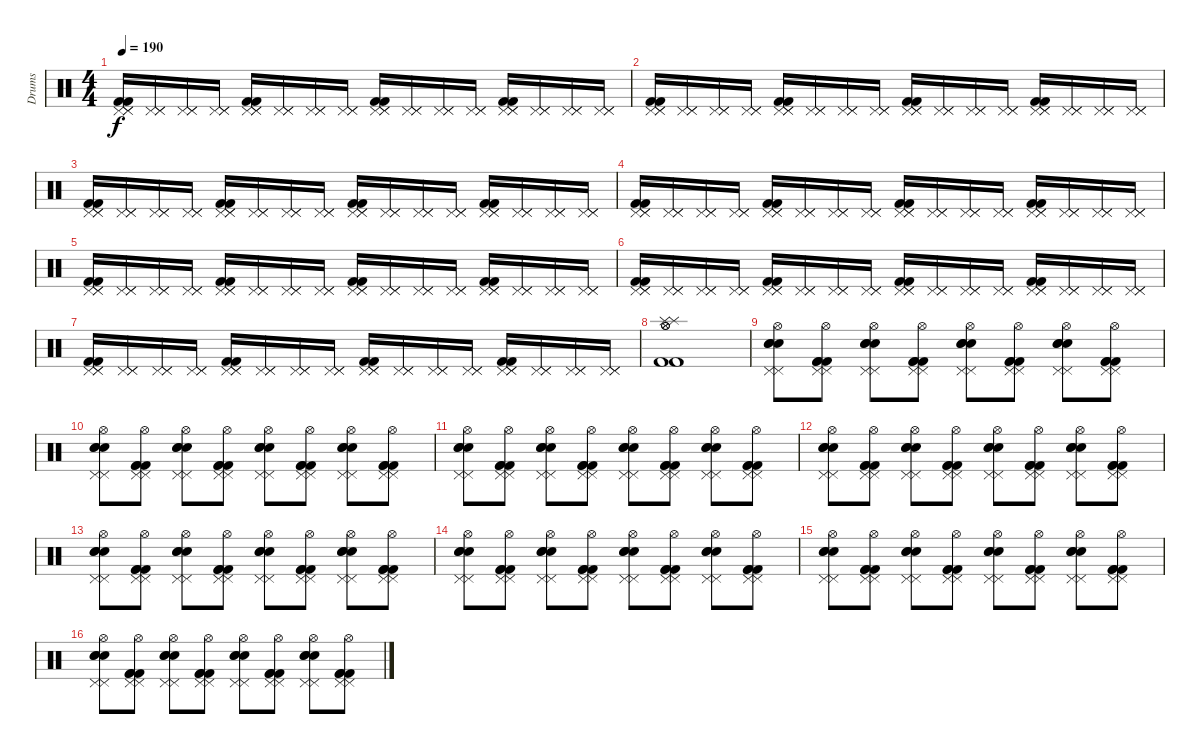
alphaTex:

\track ("Drums" "Drums") {instrument percussion}
\staff {score}
\articulation defaults
\ts (4 4)
\tempo 190
\clef neutral
\ks c
("Pedal Hi-Hat (hit)" "Pedal Hi-Hat (hit)" "Pedal Hi-Hat (hit)" "Kick (hit) 2" "Kick (hit) 2").16{dy f} ("Pedal Hi-Hat (hit)" "Pedal Hi-Hat (hit)" "Pedal Hi-Hat (hit)").16 ("Pedal Hi-Hat (hit)" "Pedal Hi-Hat (hit)" "Pedal Hi-Hat (hit)").16 ("Pedal Hi-Hat (hit)" "Pedal Hi-Hat (hit)" "Pedal Hi-Hat (hit)").16 ("Pedal Hi-Hat (hit)" "Pedal Hi-Hat (hit)" "Pedal Hi-Hat (hit)" "Kick (hit) 2" "Kick (hit) 2").16 ("Pedal Hi-Hat (hit)" "Pedal Hi-Hat (hit)" "Pedal Hi-Hat (hit)").16 ("Pedal Hi-Hat (hit)" "Pedal Hi-Hat (hit)" "Pedal Hi-Hat (hit)").16 ("Pedal Hi-Hat (hit)" "Pedal Hi-Hat (hit)" "Pedal Hi-Hat (hit)").16 ("Pedal Hi-Hat (hit)" "Pedal Hi-Hat (hit)" "Pedal Hi-Hat (hit)" "Kick (hit) 2" "Kick (hit) 2").16 ("Pedal Hi-Hat (hit)" "Pedal Hi-Hat (hit)" "Pedal Hi-Hat (hit)").16 ("Pedal Hi-Hat (hit)" "Pedal Hi-Hat (hit)" "Pedal Hi-Hat (hit)").16 ("Pedal Hi-Hat (hit)" "Pedal Hi-Hat (hit)" "Pedal Hi-Hat (hit)").16 ("Pedal Hi-Hat (hit)" "Pedal Hi-Hat (hit)" "Pedal Hi-Hat (hit)" "Kick (hit) 2" "Kick (hit) 2").16 ("Pedal Hi-Hat (hit)" "Pedal Hi-Hat (hit)" "Pedal Hi-Hat (hit)").16 ("Pedal Hi-Hat (hit)" "Pedal Hi-Hat (hit)" "Pedal Hi-Hat (hit)").16 ("Pedal Hi-Hat (hit)" "Pedal Hi-Hat (hit)" "Pedal Hi-Hat (hit)").16 |
("Pedal Hi-Hat (hit)" "Pedal Hi-Hat (hit)" "Pedal Hi-Hat (hit)" "Kick (hit) 2" "Kick (hit) 2").16 ("Pedal Hi-Hat (hit)" "Pedal Hi-Hat (hit)" "Pedal Hi-Hat (hit)").16 ("Pedal Hi-Hat (hit)" "Pedal Hi-Hat (hit)" "Pedal Hi-Hat (hit)").16 ("Pedal Hi-Hat (hit)" "Pedal Hi-Hat (hit)" "Pedal Hi-Hat (hit)").16 ("Pedal Hi-Hat (hit)" "Pedal Hi-Hat (hit)" "Pedal Hi-Hat (hit)" "Kick (hit) 2" "Kick (hit) 2").16 ("Pedal Hi-Hat (hit)" "Pedal Hi-Hat (hit)" "Pedal Hi-Hat (hit)").16 ("Pedal Hi-Hat (hit)" "Pedal Hi-Hat (hit)" "Pedal Hi-Hat (hit)").16 ("Pedal Hi-Hat (hit)" "Pedal Hi-Hat (hit)" "Pedal Hi-Hat (hit)").16 ("Pedal Hi-Hat (hit)" "Pedal Hi-Hat (hit)" "Pedal Hi-Hat (hit)" "Kick (hit) 2" "Kick (hit) 2").16 ("Pedal Hi-Hat (hit)" "Pedal Hi-Hat (hit)" "Pedal Hi-Hat (hit)").16 ("Pedal Hi-Hat (hit)" "Pedal Hi-Hat (hit)" "Pedal Hi-Hat (hit)").16 ("Pedal Hi-Hat (hit)" "Pedal Hi-Hat (hit)" "Pedal Hi-Hat (hit)").16 ("Pedal Hi-Hat (hit)" "Pedal Hi-Hat (hit)" "Pedal Hi-Hat (hit)" "Kick (hit) 2" "Kick (hit) 2").16 ("Pedal Hi-Hat (hit)" "Pedal Hi-Hat (hit)" "Pedal Hi-Hat (hit)").16 ("Pedal Hi-Hat (hit)" "Pedal Hi-Hat (hit)" "Pedal Hi-Hat (hit)").16 ("Pedal Hi-Hat (hit)" "Pedal Hi-Hat (hit)" "Pedal Hi-Hat (hit)").16 |
("Pedal Hi-Hat (hit)" "Pedal Hi-Hat (hit)" "Pedal Hi-Hat (hit)" "Kick (hit) 2" "Kick (hit) 2").16 ("Pedal Hi-Hat (hit)" "Pedal Hi-Hat (hit)" "Pedal Hi-Hat (hit)").16 ("Pedal Hi-Hat (hit)" "Pedal Hi-Hat (hit)" "Pedal Hi-Hat (hit)").16 ("Pedal Hi-Hat (hit)" "Pedal Hi-Hat (hit)" "Pedal Hi-Hat (hit)").16 ("Pedal Hi-Hat (hit)" "Pedal Hi-Hat (hit)" "Pedal Hi-Hat (hit)" "Kick (hit) 2" "Kick (hit) 2").16 ("Pedal Hi-Hat (hit)" "Pedal Hi-Hat (hit)" "Pedal Hi-Hat (hit)").16 ("Pedal Hi-Hat (hit)" "Pedal Hi-Hat (hit)" "Pedal Hi-Hat (hit)").16 ("Pedal Hi-Hat (hit)" "Pedal Hi-Hat (hit)" "Pedal Hi-Hat (hit)").16 ("Pedal Hi-Hat (hit)" "Pedal Hi-Hat (hit)" "Pedal Hi-Hat (hit)" "Kick (hit) 2" "Kick (hit) 2").16 ("Pedal Hi-Hat (hit)" "Pedal Hi-Hat (hit)" "Pedal Hi-Hat (hit)").16 ("Pedal Hi-Hat (hit)" "Pedal Hi-Hat (hit)" "Pedal Hi-Hat (hit)").16 ("Pedal Hi-Hat (hit)" "Pedal Hi-Hat (hit)" "Pedal Hi-Hat (hit)").16 ("Pedal Hi-Hat (hit)" "Pedal Hi-Hat (hit)" "Pedal Hi-Hat (hit)" "Kick (hit) 2" "Kick (hit) 2").16 ("Pedal Hi-Hat (hit)" "Pedal Hi-Hat (hit)" "Pedal Hi-Hat (hit)").16 ("Pedal Hi-Hat (hit)" "Pedal Hi-Hat (hit)" "Pedal Hi-Hat (hit)").16 ("Pedal Hi-Hat (hit)" "Pedal Hi-Hat (hit)" "Pedal Hi-Hat (hit)").16 |
("Pedal Hi-Hat (hit)" "Pedal Hi-Hat (hit)" "Pedal Hi-Hat (hit)" "Kick (hit) 2" "Kick (hit) 2").16 ("Pedal Hi-Hat (hit)" "Pedal Hi-Hat (hit)" "Pedal Hi-Hat (hit)").16 ("Pedal Hi-Hat (hit)" "Pedal Hi-Hat (hit)" "Pedal Hi-Hat (hit)").16 ("Pedal Hi-Hat (hit)" "Pedal Hi-Hat (hit)" "Pedal Hi-Hat (hit)").16 ("Pedal Hi-Hat (hit)" "Pedal Hi-Hat (hit)" "Pedal Hi-Hat (hit)" "Kick (hit) 2" "Kick (hit) 2").16 ("Pedal Hi-Hat (hit)" "Pedal Hi-Hat (hit)" "Pedal Hi-Hat (hit)").16 ("Pedal Hi-Hat (hit)" "Pedal Hi-Hat (hit)" "Pedal Hi-Hat (hit)").16 ("Pedal Hi-Hat (hit)" "Pedal Hi-Hat (hit)" "Pedal Hi-Hat (hit)").16 ("Pedal Hi-Hat (hit)" "Pedal Hi-Hat (hit)" "Pedal Hi-Hat (hit)" "Kick (hit) 2" "Kick (hit) 2").16 ("Pedal Hi-Hat (hit)" "Pedal Hi-Hat (hit)" "Pedal Hi-Hat (hit)").16 ("Pedal Hi-Hat (hit)" "Pedal Hi-Hat (hit)" "Pedal Hi-Hat (hit)").16 ("Pedal Hi-Hat (hit)" "Pedal Hi-Hat (hit)" "Pedal Hi-Hat (hit)").16 ("Pedal Hi-Hat (hit)" "Pedal Hi-Hat (hit)" "Pedal Hi-Hat (hit)" "Kick (hit) 2" "Kick (hit) 2").16 ("Pedal Hi-Hat (hit)" "Pedal Hi-Hat (hit)" "Pedal Hi-Hat (hit)").16 ("Pedal Hi-Hat (hit)" "Pedal Hi-Hat (hit)" "Pedal Hi-Hat (hit)").16 ("Pedal Hi-Hat (hit)" "Pedal Hi-Hat (hit)" "Pedal Hi-Hat (hit)").16 |
("Pedal Hi-Hat (hit)" "Pedal Hi-Hat (hit)" "Pedal Hi-Hat (hit)" "Kick (hit) 2" "Kick (hit) 2").16 ("Pedal Hi-Hat (hit)" "Pedal Hi-Hat (hit)" "Pedal Hi-Hat (hit)").16 ("Pedal Hi-Hat (hit)" "Pedal Hi-Hat (hit)" "Pedal Hi-Hat (hit)").16 ("Pedal Hi-Hat (hit)" "Pedal Hi-Hat (hit)" "Pedal Hi-Hat (hit)").16 ("Pedal Hi-Hat (hit)" "Pedal Hi-Hat (hit)" "Pedal Hi-Hat (hit)" "Kick (hit) 2" "Kick (hit) 2").16 ("Pedal Hi-Hat (hit)" "Pedal Hi-Hat (hit)" "Pedal Hi-Hat (hit)").16 ("Pedal Hi-Hat (hit)" "Pedal Hi-Hat (hit)" "Pedal Hi-Hat (hit)").16 ("Pedal Hi-Hat (hit)" "Pedal Hi-Hat (hit)" "Pedal Hi-Hat (hit)").16 ("Pedal Hi-Hat (hit)" "Pedal Hi-Hat (hit)" "Pedal Hi-Hat (hit)" "Kick (hit) 2" "Kick (hit) 2").16 ("Pedal Hi-Hat (hit)" "Pedal Hi-Hat (hit)" "Pedal Hi-Hat (hit)").16 ("Pedal Hi-Hat (hit)" "Pedal Hi-Hat (hit)" "Pedal Hi-Hat (hit)").16 ("Pedal Hi-Hat (hit)" "Pedal Hi-Hat (hit)" "Pedal Hi-Hat (hit)").16 ("Pedal Hi-Hat (hit)" "Pedal Hi-Hat (hit)" "Pedal Hi-Hat (hit)" "Kick (hit) 2" "Kick (hit) 2").16 ("Pedal Hi-Hat (hit)" "Pedal Hi-Hat (hit)" "Pedal Hi-Hat (hit)").16 ("Pedal Hi-Hat (hit)" "Pedal Hi-Hat (hit)" "Pedal Hi-Hat (hit)").16 ("Pedal Hi-Hat (hit)" "Pedal Hi-Hat (hit)" "Pedal Hi-Hat (hit)").16 |
("Pedal Hi-Hat (hit)" "Pedal Hi-Hat (hit)" "Pedal Hi-Hat (hit)" "Kick (hit) 2" "Kick (hit) 2").16 ("Pedal Hi-Hat (hit)" "Pedal Hi-Hat (hit)" "Pedal Hi-Hat (hit)").16 ("Pedal Hi-Hat (hit)" "Pedal Hi-Hat (hit)" "Pedal Hi-Hat (hit)").16 ("Pedal Hi-Hat (hit)" "Pedal Hi-Hat (hit)" "Pedal Hi-Hat (hit)").16 ("Pedal Hi-Hat (hit)" "Pedal Hi-Hat (hit)" "Pedal Hi-Hat (hit)" "Kick (hit) 2" "Kick (hit) 2").16 ("Pedal Hi-Hat (hit)" "Pedal Hi-Hat (hit)" "Pedal Hi-Hat (hit)").16 ("Pedal Hi-Hat (hit)" "Pedal Hi-Hat (hit)" "Pedal Hi-Hat (hit)").16 ("Pedal Hi-Hat (hit)" "Pedal Hi-Hat (hit)" "Pedal Hi-Hat (hit)").16 ("Pedal Hi-Hat (hit)" "Pedal Hi-Hat (hit)" "Pedal Hi-Hat (hit)" "Kick (hit) 2" "Kick (hit) 2").16 ("Pedal Hi-Hat (hit)" "Pedal Hi-Hat (hit)" "Pedal Hi-Hat (hit)").16 ("Pedal Hi-Hat (hit)" "Pedal Hi-Hat (hit)" "Pedal Hi-Hat (hit)").16 ("Pedal Hi-Hat (hit)" "Pedal Hi-Hat (hit)" "Pedal Hi-Hat (hit)").16 ("Pedal Hi-Hat (hit)" "Pedal Hi-Hat (hit)" "Pedal Hi-Hat (hit)" "Kick (hit) 2" "Kick (hit) 2").16 ("Pedal Hi-Hat (hit)" "Pedal Hi-Hat (hit)" "Pedal Hi-Hat (hit)").16 ("Pedal Hi-Hat (hit)" "Pedal Hi-Hat (hit)" "Pedal Hi-Hat (hit)").16 ("Pedal Hi-Hat (hit)" "Pedal Hi-Hat (hit)" "Pedal Hi-Hat (hit)").16 |
("Pedal Hi-Hat (hit)" "Pedal Hi-Hat (hit)" "Pedal Hi-Hat (hit)" "Kick (hit) 2" "Kick (hit) 2").16 ("Pedal Hi-Hat (hit)" "Pedal Hi-Hat (hit)" "Pedal Hi-Hat (hit)").16 ("Pedal Hi-Hat (hit)" "Pedal Hi-Hat (hit)" "Pedal Hi-Hat (hit)").16 ("Pedal Hi-Hat (hit)" "Pedal Hi-Hat (hit)" "Pedal Hi-Hat (hit)").16 ("Pedal Hi-Hat (hit)" "Pedal Hi-Hat (hit)" "Pedal Hi-Hat (hit)" "Kick (hit) 2" "Kick (hit) 2").16 ("Pedal Hi-Hat (hit)" "Pedal Hi-Hat (hit)" "Pedal Hi-Hat (hit)").16 ("Pedal Hi-Hat (hit)" "Pedal Hi-Hat (hit)" "Pedal Hi-Hat (hit)").16 ("Pedal Hi-Hat (hit)" "Pedal Hi-Hat (hit)" "Pedal Hi-Hat (hit)").16 ("Pedal Hi-Hat (hit)" "Pedal Hi-Hat (hit)" "Pedal Hi-Hat (hit)" "Kick (hit) 2" "Kick (hit) 2").16 ("Pedal Hi-Hat (hit)" "Pedal Hi-Hat (hit)" "Pedal Hi-Hat (hit)").16 ("Pedal Hi-Hat (hit)" "Pedal Hi-Hat (hit)" "Pedal Hi-Hat (hit)").16 ("Pedal Hi-Hat (hit)" "Pedal Hi-Hat (hit)" "Pedal Hi-Hat (hit)").16 ("Pedal Hi-Hat (hit)" "Pedal Hi-Hat (hit)" "Pedal Hi-Hat (hit)" "Kick (hit) 2" "Kick (hit) 2").16 ("Pedal Hi-Hat (hit)" "Pedal Hi-Hat (hit)" "Pedal Hi-Hat (hit)").16 ("Pedal Hi-Hat (hit)" "Pedal Hi-Hat (hit)" "Pedal Hi-Hat (hit)").16 ("Pedal Hi-Hat (hit)" "Pedal Hi-Hat (hit)" "Pedal Hi-Hat (hit)").16 |
("Hi-Hat (open)" "Hi-Hat (open)" "Kick (hit) 2" "Kick (hit) 2" "Splash (hit)" "Splash (hit)").1 |
("Snare (hit) 2" "Snare (hit) 2" "Snare (hit) 2" "Pedal Hi-Hat (hit)" "Hi-Hat (open)" "Pedal Hi-Hat (hit)").8 ("Kick (hit) 2" "Kick (hit) 2" "Kick (hit) 2" "Pedal Hi-Hat (hit)" "Hi-Hat (open)" "Pedal Hi-Hat (hit)").8 ("Snare (hit) 2" "Snare (hit) 2" "Snare (hit) 2" "Pedal Hi-Hat (hit)" "Hi-Hat (open)" "Pedal Hi-Hat (hit)").8 ("Kick (hit) 2" "Kick (hit) 2" "Kick (hit) 2" "Pedal Hi-Hat (hit)" "Hi-Hat (open)" "Pedal Hi-Hat (hit)").8 ("Snare (hit) 2" "Snare (hit) 2" "Snare (hit) 2" "Pedal Hi-Hat (hit)" "Hi-Hat (open)" "Pedal Hi-Hat (hit)").8 ("Kick (hit) 2" "Kick (hit) 2" "Kick (hit) 2" "Pedal Hi-Hat (hit)" "Hi-Hat (open)" "Pedal Hi-Hat (hit)").8 ("Snare (hit) 2" "Snare (hit) 2" "Snare (hit) 2" "Pedal Hi-Hat (hit)" "Hi-Hat (open)" "Pedal Hi-Hat (hit)").8 ("Kick (hit) 2" "Kick (hit) 2" "Kick (hit) 2" "Pedal Hi-Hat (hit)" "Hi-Hat (open)" "Pedal Hi-Hat (hit)").8 |
("Snare (hit) 2" "Snare (hit) 2" "Snare (hit) 2" "Pedal Hi-Hat (hit)" "Hi-Hat (open)" "Pedal Hi-Hat (hit)").8 ("Kick (hit) 2" "Kick (hit) 2" "Kick (hit) 2" "Pedal Hi-Hat (hit)" "Hi-Hat (open)" "Pedal Hi-Hat (hit)").8 ("Snare (hit) 2" "Snare (hit) 2" "Snare (hit) 2" "Pedal Hi-Hat (hit)" "Hi-Hat (open)" "Pedal Hi-Hat (hit)").8 ("Kick (hit) 2" "Kick (hit) 2" "Kick (hit) 2" "Pedal Hi-Hat (hit)" "Hi-Hat (open)" "Pedal Hi-Hat (hit)").8 ("Snare (hit) 2" "Snare (hit) 2" "Snare (hit) 2" "Pedal Hi-Hat (hit)" "Hi-Hat (open)" "Pedal Hi-Hat (hit)").8 ("Kick (hit) 2" "Kick (hit) 2" "Kick (hit) 2" "Pedal Hi-Hat (hit)" "Hi-Hat (open)" "Pedal Hi-Hat (hit)").8 ("Snare (hit) 2" "Snare (hit) 2" "Snare (hit) 2" "Pedal Hi-Hat (hit)" "Hi-Hat (open)" "Pedal Hi-Hat (hit)").8 ("Kick (hit) 2" "Kick (hit) 2" "Kick (hit) 2" "Pedal Hi-Hat (hit)" "Hi-Hat (open)" "Pedal Hi-Hat (hit)").8 |
("Snare (hit) 2" "Snare (hit) 2" "Snare (hit) 2" "Pedal Hi-Hat (hit)" "Hi-Hat (open)" "Pedal Hi-Hat (hit)").8 ("Kick (hit) 2" "Kick (hit) 2" "Kick (hit) 2" "Pedal Hi-Hat (hit)" "Hi-Hat (open)" "Pedal Hi-Hat (hit)").8 ("Snare (hit) 2" "Snare (hit) 2" "Snare (hit) 2" "Pedal Hi-Hat (hit)" "Hi-Hat (open)" "Pedal Hi-Hat (hit)").8 ("Kick (hit) 2" "Kick (hit) 2" "Kick (hit) 2" "Pedal Hi-Hat (hit)" "Hi-Hat (open)" "Pedal Hi-Hat (hit)").8 ("Snare (hit) 2" "Snare (hit) 2" "Snare (hit) 2" "Pedal Hi-Hat (hit)" "Hi-Hat (open)" "Pedal Hi-Hat (hit)").8 ("Kick (hit) 2" "Kick (hit) 2" "Kick (hit) 2" "Pedal Hi-Hat (hit)" "Hi-Hat (open)" "Pedal Hi-Hat (hit)").8 ("Snare (hit) 2" "Snare (hit) 2" "Snare (hit) 2" "Pedal Hi-Hat (hit)" "Hi-Hat (open)" "Pedal Hi-Hat (hit)").8 ("Kick (hit) 2" "Kick (hit) 2" "Kick (hit) 2" "Pedal Hi-Hat (hit)" "Hi-Hat (open)" "Pedal Hi-Hat (hit)").8 |
("Snare (hit) 2" "Snare (hit) 2" "Snare (hit) 2" "Pedal Hi-Hat (hit)" "Hi-Hat (open)" "Pedal Hi-Hat (hit)").8 ("Kick (hit) 2" "Kick (hit) 2" "Kick (hit) 2" "Pedal Hi-Hat (hit)" "Hi-Hat (open)" "Pedal Hi-Hat (hit)").8 ("Snare (hit) 2" "Snare (hit) 2" "Snare (hit) 2" "Pedal Hi-Hat (hit)" "Hi-Hat (open)" "Pedal Hi-Hat (hit)").8 ("Kick (hit) 2" "Kick (hit) 2" "Kick (hit) 2" "Pedal Hi-Hat (hit)" "Hi-Hat (open)" "Pedal Hi-Hat (hit)").8 ("Snare (hit) 2" "Snare (hit) 2" "Snare (hit) 2" "Pedal Hi-Hat (hit)" "Hi-Hat (open)" "Pedal Hi-Hat (hit)").8 ("Kick (hit) 2" "Kick (hit) 2" "Kick (hit) 2" "Pedal Hi-Hat (hit)" "Hi-Hat (open)" "Pedal Hi-Hat (hit)").8 ("Snare (hit) 2" "Snare (hit) 2" "Snare (hit) 2" "Pedal Hi-Hat (hit)" "Hi-Hat (open)" "Pedal Hi-Hat (hit)").8 ("Kick (hit) 2" "Kick (hit) 2" "Kick (hit) 2" "Pedal Hi-Hat (hit)" "Hi-Hat (open)" "Pedal Hi-Hat (hit)").8 |
("Snare (hit) 2" "Snare (hit) 2" "Snare (hit) 2" "Pedal Hi-Hat (hit)" "Hi-Hat (open)" "Pedal Hi-Hat (hit)").8 ("Kick (hit) 2" "Kick (hit) 2" "Kick (hit) 2" "Pedal Hi-Hat (hit)" "Hi-Hat (open)" "Pedal Hi-Hat (hit)").8 ("Snare (hit) 2" "Snare (hit) 2" "Snare (hit) 2" "Pedal Hi-Hat (hit)" "Hi-Hat (open)" "Pedal Hi-Hat (hit)").8 ("Kick (hit) 2" "Kick (hit) 2" "Kick (hit) 2" "Pedal Hi-Hat (hit)" "Hi-Hat (open)" "Pedal Hi-Hat (hit)").8 ("Snare (hit) 2" "Snare (hit) 2" "Snare (hit) 2" "Pedal Hi-Hat (hit)" "Hi-Hat (open)" "Pedal Hi-Hat (hit)").8 ("Kick (hit) 2" "Kick (hit) 2" "Kick (hit) 2" "Pedal Hi-Hat (hit)" "Hi-Hat (open)" "Pedal Hi-Hat (hit)").8 ("Snare (hit) 2" "Snare (hit) 2" "Snare (hit) 2" "Pedal Hi-Hat (hit)" "Hi-Hat (open)" "Pedal Hi-Hat (hit)").8 ("Kick (hit) 2" "Kick (hit) 2" "Kick (hit) 2" "Pedal Hi-Hat (hit)" "Hi-Hat (open)" "Pedal Hi-Hat (hit)").8 |
("Snare (hit) 2" "Snare (hit) 2" "Snare (hit) 2" "Pedal Hi-Hat (hit)" "Hi-Hat (open)" "Pedal Hi-Hat (hit)").8 ("Kick (hit) 2" "Kick (hit) 2" "Kick (hit) 2" "Pedal Hi-Hat (hit)" "Hi-Hat (open)" "Pedal Hi-Hat (hit)").8 ("Snare (hit) 2" "Snare (hit) 2" "Snare (hit) 2" "Pedal Hi-Hat (hit)" "Hi-Hat (open)" "Pedal Hi-Hat (hit)").8 ("Kick (hit) 2" "Kick (hit) 2" "Kick (hit) 2" "Pedal Hi-Hat (hit)" "Hi-Hat (open)" "Pedal Hi-Hat (hit)").8 ("Snare (hit) 2" "Snare (hit) 2" "Snare (hit) 2" "Pedal Hi-Hat (hit)" "Hi-Hat (open)" "Pedal Hi-Hat (hit)").8 ("Kick (hit) 2" "Kick (hit) 2" "Kick (hit) 2" "Pedal Hi-Hat (hit)" "Hi-Hat (open)" "Pedal Hi-Hat (hit)").8 ("Snare (hit) 2" "Snare (hit) 2" "Snare (hit) 2" "Pedal Hi-Hat (hit)" "Hi-Hat (open)" "Pedal Hi-Hat (hit)").8 ("Kick (hit) 2" "Kick (hit) 2" "Kick (hit) 2" "Pedal Hi-Hat (hit)" "Hi-Hat (open)" "Pedal Hi-Hat (hit)").8 |
("Snare (hit) 2" "Snare (hit) 2" "Snare (hit) 2" "Pedal Hi-Hat (hit)" "Hi-Hat (open)" "Pedal Hi-Hat (hit)").8 ("Kick (hit) 2" "Kick (hit) 2" "Kick (hit) 2" "Pedal Hi-Hat (hit)" "Hi-Hat (open)" "Pedal Hi-Hat (hit)").8 ("Snare (hit) 2" "Snare (hit) 2" "Snare (hit) 2" "Pedal Hi-Hat (hit)" "Hi-Hat (open)" "Pedal Hi-Hat (hit)").8 ("Kick (hit) 2" "Kick (hit) 2" "Kick (hit) 2" "Pedal Hi-Hat (hit)" "Hi-Hat (open)" "Pedal Hi-Hat (hit)").8 ("Snare (hit) 2" "Snare (hit) 2" "Snare (hit) 2" "Pedal Hi-Hat (hit)" "Hi-Hat (open)" "Pedal Hi-Hat (hit)").8 ("Kick (hit) 2" "Kick (hit) 2" "Kick (hit) 2" "Pedal Hi-Hat (hit)" "Hi-Hat (open)" "Pedal Hi-Hat (hit)").8 ("Snare (hit) 2" "Snare (hit) 2" "Snare (hit) 2" "Pedal Hi-Hat (hit)" "Hi-Hat (open)" "Pedal Hi-Hat (hit)").8 ("Kick (hit) 2" "Kick (hit) 2" "Kick (hit) 2" "Pedal Hi-Hat (hit)" "Hi-Hat (open)" "Pedal Hi-Hat (hit)").8 |
("Snare (hit) 2" "Snare (hit) 2" "Snare (hit) 2" "Pedal Hi-Hat (hit)" "Hi-Hat (open)" "Pedal Hi-Hat (hit)").8 ("Kick (hit) 2" "Kick (hit) 2" "Kick (hit) 2" "Pedal Hi-Hat (hit)" "Hi-Hat (open)" "Pedal Hi-Hat (hit)").8 ("Snare (hit) 2" "Snare (hit) 2" "Snare (hit) 2" "Pedal Hi-Hat (hit)" "Hi-Hat (open)" "Pedal Hi-Hat (hit)").8 ("Kick (hit) 2" "Kick (hit) 2" "Kick (hit) 2" "Pedal Hi-Hat (hit)" "Hi-Hat (open)" "Pedal Hi-Hat (hit)").8 ("Snare (hit) 2" "Snare (hit) 2" "Snare (hit) 2" "Pedal Hi-Hat (hit)" "Hi-Hat (open)" "Pedal Hi-Hat (hit)").8 ("Kick (hit) 2" "Kick (hit) 2" "Kick (hit) 2" "Pedal Hi-Hat (hit)" "Hi-Hat (open)" "Pedal Hi-Hat (hit)").8 ("Snare (hit) 2" "Snare (hit) 2" "Snare (hit) 2" "Pedal Hi-Hat (hit)" "Hi-Hat (open)" "Pedal Hi-Hat (hit)").8 ("Kick (hit) 2" "Kick (hit) 2" "Kick (hit) 2" "Pedal Hi-Hat (hit)" "Hi-Hat (open)" "Pedal Hi-Hat (hit)").8
